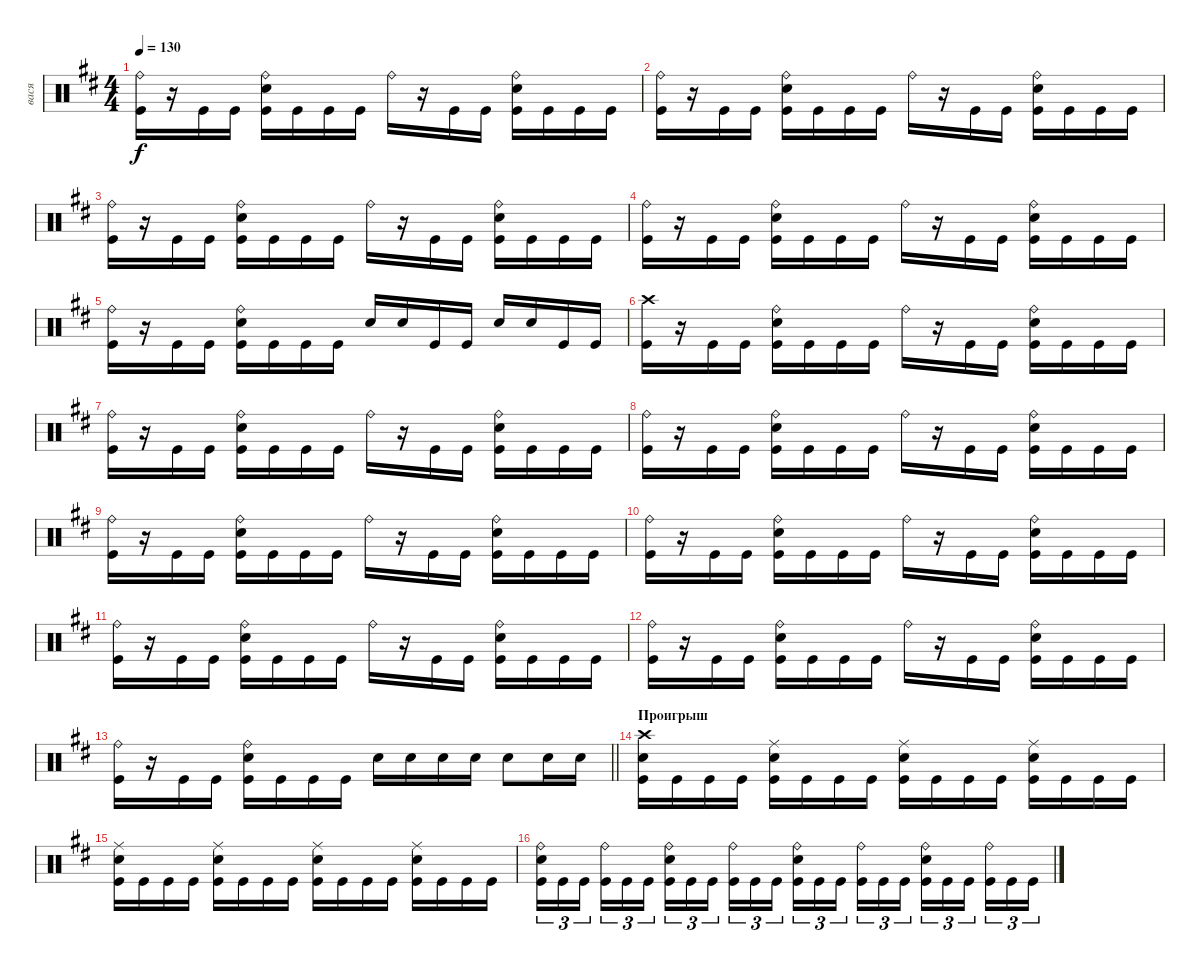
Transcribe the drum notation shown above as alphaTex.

\track ("вася" "вася") {instrument percussion}
\staff {score}
\articulation defaults
\ts (4 4)
\tempo 130
\clef neutral
\ks bminor
("Ride (bell)" "Kick (hit)").16{dy f} r.16 "Kick (hit)".16 "Kick (hit)".16 ("Ride (bell)" "Electric Snare (hit)" "Kick (hit)").16 "Kick (hit)".16 "Kick (hit)".16 "Kick (hit)".16 "Ride (bell)".16 r.16 "Kick (hit)".16 "Kick (hit)".16 ("Ride (bell)" "Electric Snare (hit)" "Kick (hit)").16 "Kick (hit)".16 "Kick (hit)".16 "Kick (hit)".16 |
("Ride (bell)" "Kick (hit)").16 r.16 "Kick (hit)".16 "Kick (hit)".16 ("Ride (bell)" "Electric Snare (hit)" "Kick (hit)").16 "Kick (hit)".16 "Kick (hit)".16 "Kick (hit)".16 "Ride (bell)".16 r.16 "Kick (hit)".16 "Kick (hit)".16 ("Ride (bell)" "Electric Snare (hit)" "Kick (hit)").16 "Kick (hit)".16 "Kick (hit)".16 "Kick (hit)".16 |
("Ride (bell)" "Kick (hit)").16 r.16 "Kick (hit)".16 "Kick (hit)".16 ("Ride (bell)" "Electric Snare (hit)" "Kick (hit)").16 "Kick (hit)".16 "Kick (hit)".16 "Kick (hit)".16 "Ride (bell)".16 r.16 "Kick (hit)".16 "Kick (hit)".16 ("Ride (bell)" "Electric Snare (hit)" "Kick (hit)").16 "Kick (hit)".16 "Kick (hit)".16 "Kick (hit)".16 |
("Ride (bell)" "Kick (hit)").16 r.16 "Kick (hit)".16 "Kick (hit)".16 ("Ride (bell)" "Electric Snare (hit)" "Kick (hit)").16 "Kick (hit)".16 "Kick (hit)".16 "Kick (hit)".16 "Ride (bell)".16 r.16 "Kick (hit)".16 "Kick (hit)".16 ("Ride (bell)" "Electric Snare (hit)" "Kick (hit)").16 "Kick (hit)".16 "Kick (hit)".16 "Kick (hit)".16 |
("Ride (bell)" "Kick (hit)").16 r.16 "Kick (hit)".16 "Kick (hit)".16 ("Ride (bell)" "Electric Snare (hit)" "Kick (hit)").16 "Kick (hit)".16 "Kick (hit)".16 "Kick (hit)".16 "Electric Snare (hit)".16 "Electric Snare (hit)".16 "Kick (hit)".16 "Kick (hit)".16 "Electric Snare (hit)".16 "Electric Snare (hit)".16 "Kick (hit)".16 "Kick (hit)".16 |
("Crash high (hit)" "Kick (hit)").16 r.16 "Kick (hit)".16 "Kick (hit)".16 ("Ride (bell)" "Electric Snare (hit)" "Kick (hit)").16 "Kick (hit)".16 "Kick (hit)".16 "Kick (hit)".16 "Ride (bell)".16 r.16 "Kick (hit)".16 "Kick (hit)".16 ("Ride (bell)" "Electric Snare (hit)" "Kick (hit)").16 "Kick (hit)".16 "Kick (hit)".16 "Kick (hit)".16 |
("Ride (bell)" "Kick (hit)").16 r.16 "Kick (hit)".16 "Kick (hit)".16 ("Ride (bell)" "Electric Snare (hit)" "Kick (hit)").16 "Kick (hit)".16 "Kick (hit)".16 "Kick (hit)".16 "Ride (bell)".16 r.16 "Kick (hit)".16 "Kick (hit)".16 ("Ride (bell)" "Electric Snare (hit)" "Kick (hit)").16 "Kick (hit)".16 "Kick (hit)".16 "Kick (hit)".16 |
("Ride (bell)" "Kick (hit)").16 r.16 "Kick (hit)".16 "Kick (hit)".16 ("Ride (bell)" "Electric Snare (hit)" "Kick (hit)").16 "Kick (hit)".16 "Kick (hit)".16 "Kick (hit)".16 "Ride (bell)".16 r.16 "Kick (hit)".16 "Kick (hit)".16 ("Ride (bell)" "Electric Snare (hit)" "Kick (hit)").16 "Kick (hit)".16 "Kick (hit)".16 "Kick (hit)".16 |
("Ride (bell)" "Kick (hit)").16 r.16 "Kick (hit)".16 "Kick (hit)".16 ("Ride (bell)" "Electric Snare (hit)" "Kick (hit)").16 "Kick (hit)".16 "Kick (hit)".16 "Kick (hit)".16 "Ride (bell)".16 r.16 "Kick (hit)".16 "Kick (hit)".16 ("Ride (bell)" "Electric Snare (hit)" "Kick (hit)").16 "Kick (hit)".16 "Kick (hit)".16 "Kick (hit)".16 |
("Ride (bell)" "Kick (hit)").16 r.16 "Kick (hit)".16 "Kick (hit)".16 ("Ride (bell)" "Electric Snare (hit)" "Kick (hit)").16 "Kick (hit)".16 "Kick (hit)".16 "Kick (hit)".16 "Ride (bell)".16 r.16 "Kick (hit)".16 "Kick (hit)".16 ("Ride (bell)" "Electric Snare (hit)" "Kick (hit)").16 "Kick (hit)".16 "Kick (hit)".16 "Kick (hit)".16 |
("Ride (bell)" "Kick (hit)").16 r.16 "Kick (hit)".16 "Kick (hit)".16 ("Ride (bell)" "Electric Snare (hit)" "Kick (hit)").16 "Kick (hit)".16 "Kick (hit)".16 "Kick (hit)".16 "Ride (bell)".16 r.16 "Kick (hit)".16 "Kick (hit)".16 ("Ride (bell)" "Electric Snare (hit)" "Kick (hit)").16 "Kick (hit)".16 "Kick (hit)".16 "Kick (hit)".16 |
("Ride (bell)" "Kick (hit)").16 r.16 "Kick (hit)".16 "Kick (hit)".16 ("Ride (bell)" "Electric Snare (hit)" "Kick (hit)").16 "Kick (hit)".16 "Kick (hit)".16 "Kick (hit)".16 "Ride (bell)".16 r.16 "Kick (hit)".16 "Kick (hit)".16 ("Ride (bell)" "Electric Snare (hit)" "Kick (hit)").16 "Kick (hit)".16 "Kick (hit)".16 "Kick (hit)".16 |
\barLineRight lightlight
("Ride (bell)" "Kick (hit)").16 r.16 "Kick (hit)".16 "Kick (hit)".16 ("Ride (bell)" "Electric Snare (hit)" "Kick (hit)").16 "Kick (hit)".16 "Kick (hit)".16 "Kick (hit)".16 "Electric Snare (hit)".16 "Electric Snare (hit)".16 "Electric Snare (hit)".16 "Electric Snare (hit)".16 "Electric Snare (hit)".8 "Electric Snare (hit)".16 "Electric Snare (hit)".16 |
\section ("" "Проигрыш")
("Crash high (hit)" "Electric Snare (hit)" "Kick (hit)").16 "Kick (hit)".16 "Kick (hit)".16 "Kick (hit)".16 ("Ride (middle)" "Electric Snare (hit)" "Kick (hit)").16 "Kick (hit)".16 "Kick (hit)".16 "Kick (hit)".16 ("Ride (middle)" "Electric Snare (hit)" "Kick (hit)").16 "Kick (hit)".16 "Kick (hit)".16 "Kick (hit)".16 ("Ride (middle)" "Electric Snare (hit)" "Kick (hit)").16 "Kick (hit)".16 "Kick (hit)".16 "Kick (hit)".16 |
("Ride (middle)" "Electric Snare (hit)" "Kick (hit)").16 "Kick (hit)".16 "Kick (hit)".16 "Kick (hit)".16 ("Ride (middle)" "Electric Snare (hit)" "Kick (hit)").16 "Kick (hit)".16 "Kick (hit)".16 "Kick (hit)".16 ("Ride (middle)" "Electric Snare (hit)" "Kick (hit)").16 "Kick (hit)".16 "Kick (hit)".16 "Kick (hit)".16 ("Ride (middle)" "Electric Snare (hit)" "Kick (hit)").16 "Kick (hit)".16 "Kick (hit)".16 "Kick (hit)".16 |
("Ride (bell)" "Electric Snare (hit)" "Kick (hit)").16{tu (3 2)} "Kick (hit)".16{tu (3 2)} "Kick (hit)".16{tu (3 2) beam splitsecondary} ("Ride (bell)" "Kick (hit)").16{tu (3 2)} "Kick (hit)".16{tu (3 2)} "Kick (hit)".16{tu (3 2)} ("Ride (bell)" "Electric Snare (hit)" "Kick (hit)").16{tu (3 2)} "Kick (hit)".16{tu (3 2)} "Kick (hit)".16{tu (3 2) beam splitsecondary} ("Ride (bell)" "Kick (hit)").16{tu (3 2)} "Kick (hit)".16{tu (3 2)} "Kick (hit)".16{tu (3 2)} ("Ride (bell)" "Electric Snare (hit)" "Kick (hit)").16{tu (3 2)} "Kick (hit)".16{tu (3 2)} "Kick (hit)".16{tu (3 2) beam splitsecondary} ("Ride (bell)" "Kick (hit)").16{tu (3 2)} "Kick (hit)".16{tu (3 2)} "Kick (hit)".16{tu (3 2)} ("Ride (bell)" "Electric Snare (hit)" "Kick (hit)").16{tu (3 2)} "Kick (hit)".16{tu (3 2)} "Kick (hit)".16{tu (3 2) beam splitsecondary} ("Ride (bell)" "Kick (hit)").16{tu (3 2)} "Kick (hit)".16{tu (3 2)} "Kick (hit)".16{tu (3 2)}
